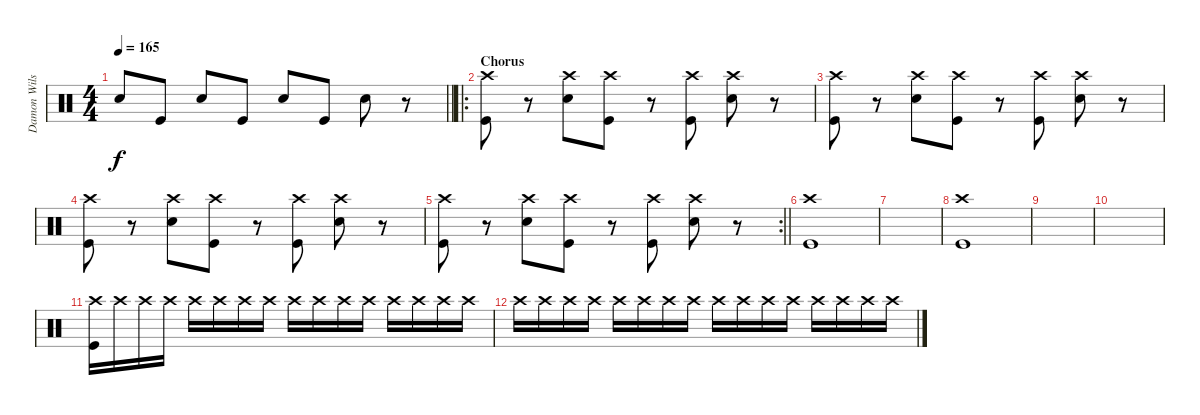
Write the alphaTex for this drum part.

\track ("Damon Wilson" "Damon Wils") {instrument percussion}
\staff {score}
\articulation defaults
\ts (4 4)
\tempo 165
\clef neutral
\barLineRight lightlight
\ks c "Snare (hit) 2".8{dy f} "Kick (hit)".8 "Snare (hit) 2".8 "Kick (hit)".8 "Snare (hit) 2".8 "Kick (hit)".8 "Snare (hit) 2".8
r.8 |
\ro
\section ("" "Chorus")
("Crash high (hit)" "Kick (hit)").8 r.8 ("Crash high (hit)" "Snare (hit) 2").8 ("Crash high (hit)" "Kick (hit)").8 r.8 ("Crash high (hit)" "Kick (hit)").8 ("Crash high (hit)" "Snare (hit) 2").8 r.8 |
("Crash high (hit)" "Kick (hit)").8 r.8 ("Crash high (hit)" "Snare (hit) 2").8 ("Crash high (hit)" "Kick (hit)").8 r.8 ("Crash high (hit)" "Kick (hit)").8 ("Crash high (hit)" "Snare (hit) 2").8 r.8 |
("Crash high (hit)" "Kick (hit)").8 r.8 ("Crash high (hit)" "Snare (hit) 2").8 ("Crash high (hit)" "Kick (hit)").8 r.8 ("Crash high (hit)" "Kick (hit)").8 ("Crash high (hit)" "Snare (hit) 2").8 r.8 |
\rc 2
\barLineRight lightlight
("Crash high (hit)" "Kick (hit)").8 r.8 ("Crash high (hit)" "Snare (hit) 2").8 ("Crash high (hit)" "Kick (hit)").8 r.8 ("Crash high (hit)" "Kick (hit)").8 ("Crash high (hit)" "Snare (hit) 2").8 r.8 |
("Crash high (hit)" "Kick (hit)").1 |
|
("Crash high (hit)" "Kick (hit)").1 |
|
|
("Crash high (hit)" "Kick (hit)").16 "Crash high (hit)".16 "Crash high (hit)".16 "Crash high (hit)".16 "Crash high (hit)".16 "Crash high (hit)".16 "Crash high (hit)".16 "Crash high (hit)".16 "Crash high (hit)".16 "Crash high (hit)".16 "Crash high (hit)".16 "Crash high (hit)".16 "Crash high (hit)".16 "Crash high (hit)".16 "Crash high (hit)".16 "Crash high (hit)".16 |
"Crash high (hit)".16 "Crash high (hit)".16 "Crash high (hit)".16 "Crash high (hit)".16 "Crash high (hit)".16 "Crash high (hit)".16 "Crash high (hit)".16 "Crash high (hit)".16 "Crash high (hit)".16 "Crash high (hit)".16 "Crash high (hit)".16 "Crash high (hit)".16 "Crash high (hit)".16 "Crash high (hit)".16 "Crash high (hit)".16 "Crash high (hit)".16
